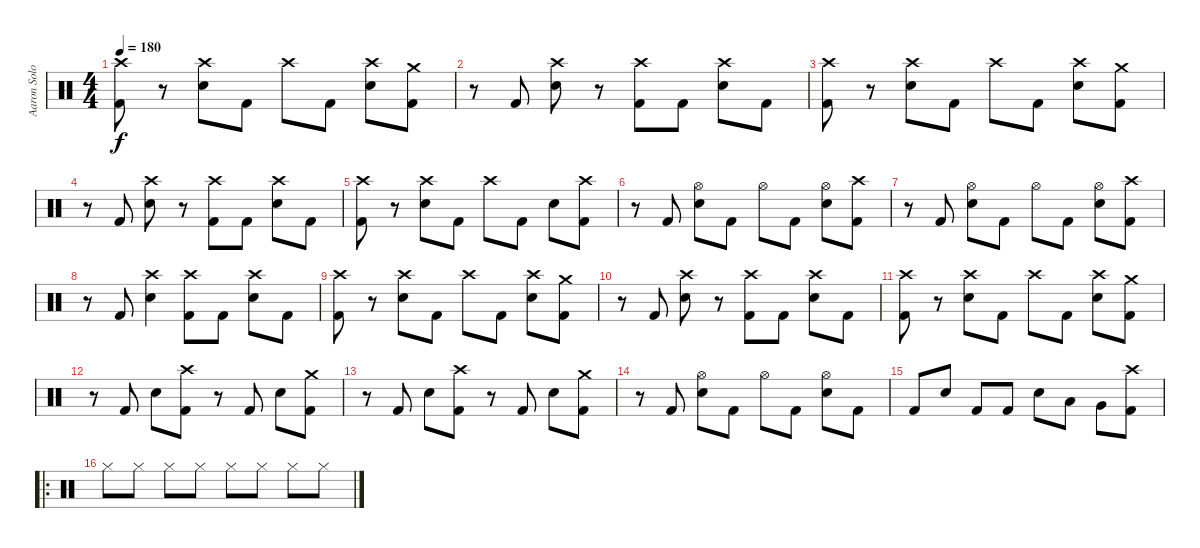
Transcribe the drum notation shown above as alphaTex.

\track ("Aaron Solowoniuk" "Aaron Solo") {instrument percussion}
\staff {score}
\articulation defaults
\ts (4 4)
\tempo 180
\clef neutral
\ks c
("Crash high (hit)" "Kick (hit) 2").8{dy f} r.8 ("Crash high (hit)" "Electric Snare (hit)").8 "Kick (hit) 2".8 "Crash high (hit)".8 "Kick (hit) 2".8 ("Crash high (hit)" "Electric Snare (hit)").8 ("Crash medium (hit)" "Kick (hit) 2").8 |
r.8 "Kick (hit) 2".8 ("Crash high (hit)" "Electric Snare (hit)").8 r.8 ("Crash high (hit)" "Kick (hit) 2").8 "Kick (hit) 2".8 ("Crash high (hit)" "Electric Snare (hit)").8 "Kick (hit) 2".8 |
("Crash high (hit)" "Kick (hit) 2").8 r.8 ("Crash high (hit)" "Electric Snare (hit)").8 "Kick (hit) 2".8 "Crash high (hit)".8 "Kick (hit) 2".8 ("Crash high (hit)" "Electric Snare (hit)").8 ("Crash medium (hit)" "Kick (hit) 2").8 |
r.8 "Kick (hit) 2".8 ("Crash high (hit)" "Electric Snare (hit)").8 r.8 ("Crash high (hit)" "Kick (hit) 2").8 "Kick (hit) 2".8 ("Crash high (hit)" "Electric Snare (hit)").8 "Kick (hit) 2".8 |
("Crash high (hit)" "Kick (hit) 2").8 r.8 ("Crash high (hit)" "Electric Snare (hit)").8 "Kick (hit) 2".8 "Crash high (hit)".8 "Kick (hit) 2".8 "Electric Snare (hit)".8 ("Crash high (hit)" "Kick (hit) 2").8 |
r.8 "Kick (hit) 2".8 ("Hi-Hat (open)" "Electric Snare (hit)").8 "Kick (hit) 2".8 "Hi-Hat (open)".8 "Kick (hit) 2".8 ("Hi-Hat (open)" "Electric Snare (hit)").8 ("Crash high (hit)" "Kick (hit) 2").8 |
r.8 "Kick (hit) 2".8 ("Hi-Hat (open)" "Electric Snare (hit)").8 "Kick (hit) 2".8 "Hi-Hat (open)".8 "Kick (hit) 2".8 ("Hi-Hat (open)" "Electric Snare (hit)").8 ("Crash high (hit)" "Kick (hit) 2").8 |
r.8 "Kick (hit) 2".8 ("Crash high (hit)" "Electric Snare (hit)").4 ("Crash high (hit)" "Kick (hit) 2").8 "Kick (hit) 2".8 ("Crash high (hit)" "Electric Snare (hit)").8 "Kick (hit) 2".8 |
("Crash high (hit)" "Kick (hit) 2").8 r.8 ("Crash high (hit)" "Electric Snare (hit)").8 "Kick (hit) 2".8 "Crash high (hit)".8 "Kick (hit) 2".8 ("Crash high (hit)" "Electric Snare (hit)").8 ("Crash medium (hit)" "Kick (hit) 2").8 |
r.8 "Kick (hit) 2".8 ("Crash high (hit)" "Electric Snare (hit)").8 r.8 ("Crash high (hit)" "Kick (hit) 2").8 "Kick (hit) 2".8 ("Crash high (hit)" "Electric Snare (hit)").8 "Kick (hit) 2".8 |
("Crash high (hit)" "Kick (hit) 2").8 r.8 ("Crash high (hit)" "Electric Snare (hit)").8 "Kick (hit) 2".8 "Crash high (hit)".8 "Kick (hit) 2".8 ("Crash high (hit)" "Electric Snare (hit)").8 ("Crash medium (hit)" "Kick (hit) 2").8 |
r.8 "Kick (hit) 2".8 "Electric Snare (hit)".8 ("Crash high (hit)" "Kick (hit) 2").8 r.8 "Kick (hit) 2".8 "Electric Snare (hit)".8 ("Crash medium (hit)" "Kick (hit) 2").8 |
r.8 "Kick (hit) 2".8 "Electric Snare (hit)".8 ("Crash high (hit)" "Kick (hit) 2").8 r.8 "Kick (hit) 2".8 "Electric Snare (hit)".8 ("Crash medium (hit)" "Kick (hit) 2").8 |
r.8 "Kick (hit) 2".8 ("Hi-Hat (open)" "Electric Snare (hit)").8 "Kick (hit) 2".8 "Hi-Hat (open)".8 "Kick (hit) 2".8 ("Hi-Hat (open)" "Electric Snare (hit)").8 "Kick (hit) 2".8 |
"Kick (hit) 2".8 "Electric Snare (hit)".8 "Kick (hit) 2".8 "Kick (hit) 2".8 "Electric Snare (hit)".8 "Low Tom (hit)".8 "Very Low Tom (hit)".8 ("Crash high (hit)" "Kick (hit) 2").8 |
\ro "Hi-Hat (closed)".8 "Hi-Hat (closed)".8 "Hi-Hat (closed)".8 "Hi-Hat (closed)".8 "Hi-Hat (closed)".8 "Hi-Hat (closed)".8 "Hi-Hat (closed)".8 "Hi-Hat (closed)".8
